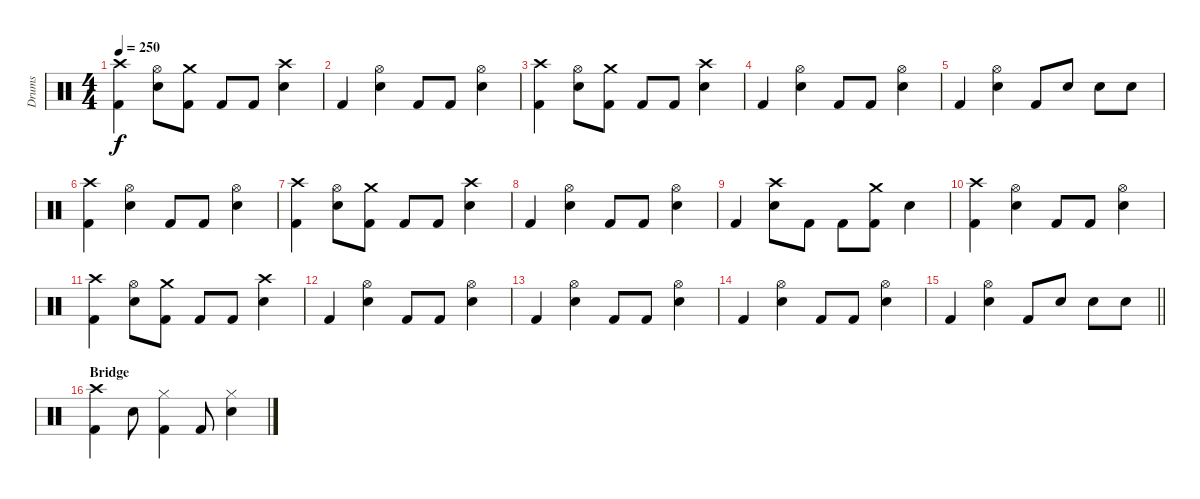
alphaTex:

\track ("Drums" "Drums") {instrument percussion}
\staff {score}
\articulation defaults
\ts (4 4)
\tempo 250
\clef neutral
\ks c
("Crash high (hit)" "Kick (hit) 2").4{dy f} ("Hi-Hat (open)" "Snare (hit) 2").8 ("Crash medium (hit)" "Kick (hit) 2").8 "Kick (hit) 2".8 "Kick (hit) 2".8 ("Crash high (hit)" "Snare (hit) 2").4 |
"Kick (hit) 2".4 ("Hi-Hat (open)" "Snare (hit) 2").4 "Kick (hit) 2".8 "Kick (hit) 2".8 ("Hi-Hat (open)" "Snare (hit) 2").4 |
("Crash high (hit)" "Kick (hit) 2").4 ("Hi-Hat (open)" "Snare (hit) 2").8 ("Crash medium (hit)" "Kick (hit) 2").8 "Kick (hit) 2".8 "Kick (hit) 2".8 ("Crash high (hit)" "Snare (hit) 2").4 |
"Kick (hit) 2".4 ("Hi-Hat (open)" "Snare (hit) 2").4 "Kick (hit) 2".8 "Kick (hit) 2".8 ("Hi-Hat (open)" "Snare (hit) 2").4 |
"Kick (hit) 2".4 ("Hi-Hat (open)" "Snare (hit) 2").4 "Kick (hit) 2".8 "Snare (hit) 2".8 "Snare (hit) 2".8 "Snare (hit) 2".8 |
("Crash high (hit)" "Kick (hit) 2").4 ("Hi-Hat (open)" "Snare (hit) 2").4 "Kick (hit) 2".8 "Kick (hit) 2".8 ("Hi-Hat (open)" "Snare (hit) 2").4 |
("Crash high (hit)" "Kick (hit) 2").4 ("Hi-Hat (open)" "Snare (hit) 2").8 ("Crash medium (hit)" "Kick (hit) 2").8 "Kick (hit) 2".8 "Kick (hit) 2".8 ("Crash high (hit)" "Snare (hit) 2").4 |
"Kick (hit) 2".4 ("Hi-Hat (open)" "Snare (hit) 2").4 "Kick (hit) 2".8 "Kick (hit) 2".8 ("Hi-Hat (open)" "Snare (hit) 2").4 |
"Kick (hit) 2".4 ("Crash high (hit)" "Snare (hit) 2").8 "Kick (hit) 2".8 "Kick (hit) 2".8 ("Crash medium (hit)" "Kick (hit) 2").8 "Snare (hit) 2".4 |
("Crash high (hit)" "Kick (hit) 2").4 ("Hi-Hat (open)" "Snare (hit) 2").4 "Kick (hit) 2".8 "Kick (hit) 2".8 ("Hi-Hat (open)" "Snare (hit) 2").4 |
("Crash high (hit)" "Kick (hit) 2").4 ("Hi-Hat (open)" "Snare (hit) 2").8 ("Crash medium (hit)" "Kick (hit) 2").8 "Kick (hit) 2".8 "Kick (hit) 2".8 ("Crash high (hit)" "Snare (hit) 2").4 |
"Kick (hit) 2".4 ("Hi-Hat (open)" "Snare (hit) 2").4 "Kick (hit) 2".8 "Kick (hit) 2".8 ("Hi-Hat (open)" "Snare (hit) 2").4 |
"Kick (hit) 2".4 ("Hi-Hat (open)" "Snare (hit) 2").4 "Kick (hit) 2".8 "Kick (hit) 2".8 ("Hi-Hat (open)" "Snare (hit) 2").4 |
"Kick (hit) 2".4 ("Hi-Hat (open)" "Snare (hit) 2").4 "Kick (hit) 2".8 "Kick (hit) 2".8 ("Hi-Hat (open)" "Snare (hit) 2").4 |
\barLineRight lightlight "Kick (hit) 2".4
("Hi-Hat (open)" "Snare (hit) 2").4 "Kick (hit) 2".8 "Snare (hit) 2".8 "Snare (hit) 2".8 "Snare (hit) 2".8 |
\section ("" "Bridge")
("Crash high (hit)" "Kick (hit) 2").4 "Snare (hit) 2".8 ("Hi-Hat (closed)" "Kick (hit) 2").4 "Kick (hit) 2".8 ("Hi-Hat (closed)" "Snare (hit) 2").4
